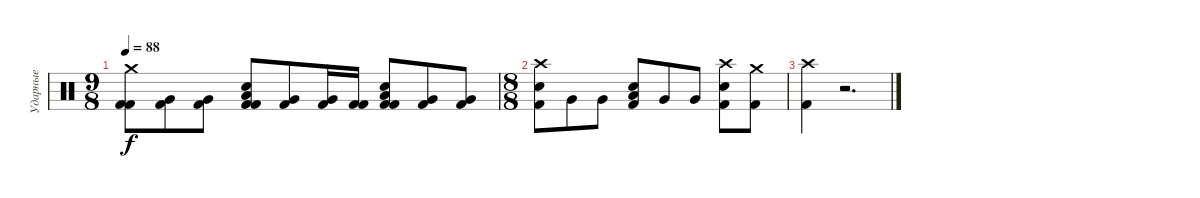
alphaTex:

\track ("Ударные" "Ударные") {instrument percussion}
\staff {score}
\articulation defaults
\ts (9 8)
\tempo 88
\clef neutral
\ks c
("Crash medium (hit)" "Kick (hit) 2" "Kick (hit) 2").8{dy f} ("Very Low Tom (hit)" "Kick (hit) 2").8 ("Very Low Tom (hit)" "Kick (hit) 2").8 ("Low Tom (hit)" "Kick (hit) 2" "Snare (hit) 2" "Kick (hit) 2").8 ("Very Low Tom (hit)" "Kick (hit) 2").8 ("Very Low Tom (hit)" "Kick (hit) 2").16 ("Kick (hit) 2" "Kick (hit) 2").16 ("Low Tom (hit)" "Kick (hit) 2" "Snare (hit) 2" "Kick (hit) 2").8 ("Very Low Tom (hit)" "Kick (hit) 2").8 ("Very Low Tom (hit)" "Kick (hit) 2").8 |
\ts (8 8)
("Crash high (hit)" "Snare (hit) 2" "Kick (hit) 2").8 "Very Low Tom (hit)".8 "Very Low Tom (hit)".8 ("Low Tom (hit)" "Snare (hit) 2" "Kick (hit) 2").8 "Very Low Tom (hit)".8 "Very Low Tom (hit)".8 ("Crash high (hit)" "Snare (hit) 2" "Kick (hit) 2").8 ("Crash medium (hit)" "Kick (hit) 2").8 |
("Crash high (hit)" "Kick (hit) 2").4 r.2{d}
